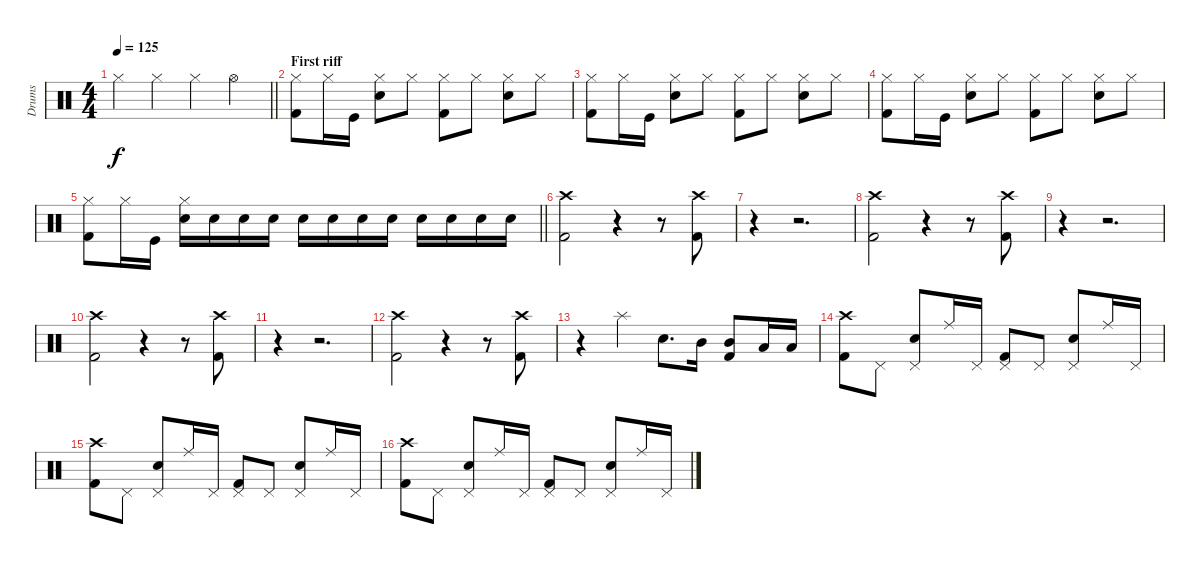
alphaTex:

\track ("Drums" "Drums") {instrument percussion}
\staff {score}
\articulation defaults
\ts (4 4)
\tempo 125
\clef neutral
\barLineRight lightlight
\ks c "Hi-Hat (closed)".4{dy f} "Hi-Hat (closed)".4 "Hi-Hat (closed)".4 "Hi-Hat (open)".4
|
\section ("" "First riff")
("Hi-Hat (closed)" "Kick (hit) 2").8{volume 16} "Hi-Hat (closed)".16 "Kick (hit)".16 ("Hi-Hat (closed)" "Snare (hit) 2").8 "Hi-Hat (closed)".8 ("Hi-Hat (closed)" "Kick (hit) 2").8 "Hi-Hat (closed)".8 ("Hi-Hat (closed)" "Snare (hit) 2").8 "Hi-Hat (closed)".8 |
("Hi-Hat (closed)" "Kick (hit) 2").8 "Hi-Hat (closed)".16 "Kick (hit)".16 ("Hi-Hat (closed)" "Snare (hit) 2").8 "Hi-Hat (closed)".8 ("Hi-Hat (closed)" "Kick (hit) 2").8 "Hi-Hat (closed)".8 ("Hi-Hat (closed)" "Snare (hit) 2").8 "Hi-Hat (closed)".8 |
("Hi-Hat (closed)" "Kick (hit) 2").8 "Hi-Hat (closed)".16 "Kick (hit)".16 ("Hi-Hat (closed)" "Snare (hit) 2").8 "Hi-Hat (closed)".8 ("Hi-Hat (closed)" "Kick (hit) 2").8 "Hi-Hat (closed)".8 ("Hi-Hat (closed)" "Snare (hit) 2").8 "Hi-Hat (closed)".8 |
\barLineRight lightlight
("Hi-Hat (closed)" "Kick (hit) 2").8 "Hi-Hat (closed)".16 "Kick (hit)".16 ("Hi-Hat (closed)" "Snare (hit) 2").16{volume 4} "Snare (hit) 2".16{volume 16} "Snare (hit) 2".16 "Snare (hit) 2".16 "Snare (hit) 2".16 "Snare (hit) 2".16 "Snare (hit) 2".16 "Snare (hit) 2".16 "Snare (hit) 2".16 "Snare (hit) 2".16 "Snare (hit) 2".16 "Snare (hit) 2".16 |
("Crash high (hit)" "Kick (hit) 2").2 r.4 r.8 ("Crash high (hit)" "Kick (hit) 2").8 |
r.4 r.2{d} |
("Crash high (hit)" "Kick (hit) 2").2 r.4 r.8 ("Crash high (hit)" "Kick (hit) 2").8 |
r.4 r.2{d} |
("Crash high (hit)" "Kick (hit) 2").2 r.4 r.8 ("Crash high (hit)" "Kick (hit) 2").8 |
r.4 r.2{d} |
("Crash high (hit)" "Kick (hit) 2").2 r.4 r.8 ("Crash high (hit)" "Kick (hit) 2").8 |
r.4 "Splash (hit)".4 "Snare (hit) 2".8{d} "Mid Tom (hit)".16 ("Kick (hit) 2" "Mid Tom (hit)").8 "Low Tom (hit)".16 "Low Tom (hit)".16 |
("Crash high (hit)" "Kick (hit) 2").8 "Pedal Hi-Hat (hit)".8 ("Pedal Hi-Hat (hit)" "Snare (hit) 2").8 "Ride (middle)".16 "Pedal Hi-Hat (hit)".16 ("Pedal Hi-Hat (hit)" "Kick (hit) 2").8 "Pedal Hi-Hat (hit)".8 ("Pedal Hi-Hat (hit)" "Snare (hit) 2").8 "Ride (middle)".16 "Pedal Hi-Hat (hit)".16 |
("Crash high (hit)" "Kick (hit) 2").8 "Pedal Hi-Hat (hit)".8 ("Pedal Hi-Hat (hit)" "Snare (hit) 2").8 "Ride (middle)".16 "Pedal Hi-Hat (hit)".16 ("Pedal Hi-Hat (hit)" "Kick (hit) 2").8 "Pedal Hi-Hat (hit)".8 ("Pedal Hi-Hat (hit)" "Snare (hit) 2").8 "Ride (middle)".16 "Pedal Hi-Hat (hit)".16 |
("Crash high (hit)" "Kick (hit) 2").8 "Pedal Hi-Hat (hit)".8 ("Pedal Hi-Hat (hit)" "Snare (hit) 2").8 "Ride (middle)".16 "Pedal Hi-Hat (hit)".16 ("Pedal Hi-Hat (hit)" "Kick (hit) 2").8 "Pedal Hi-Hat (hit)".8 ("Pedal Hi-Hat (hit)" "Snare (hit) 2").8 "Ride (middle)".16 "Pedal Hi-Hat (hit)".16
